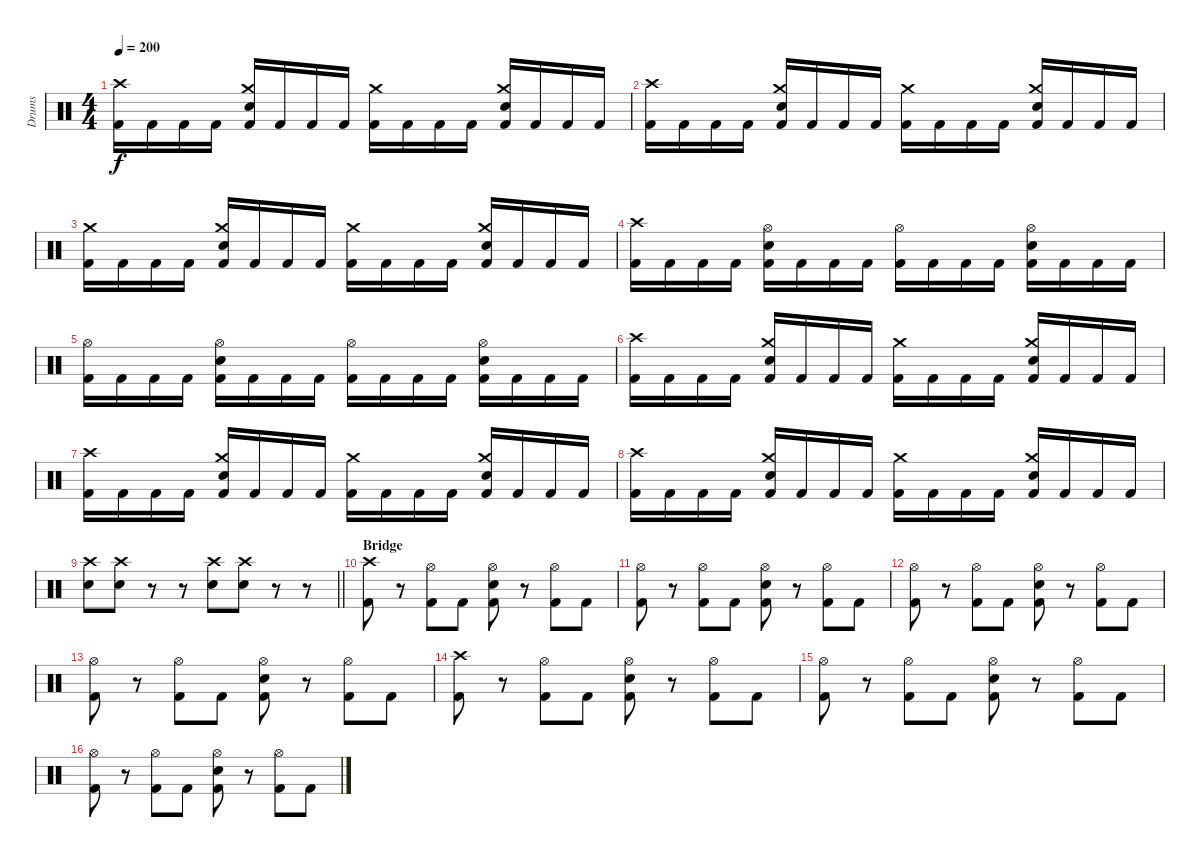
\track ("Drums" "Drums") {instrument percussion}
\staff {score}
\articulation defaults
\ts (4 4)
\tempo 200
\clef neutral
\ks c
("Crash high (hit)" "Kick (hit) 2").16{dy f} "Kick (hit) 2".16 "Kick (hit) 2".16 "Kick (hit) 2".16 ("Crash medium (hit)" "Electric Snare (hit)" "Kick (hit) 2").16 "Kick (hit) 2".16 "Kick (hit) 2".16 "Kick (hit) 2".16 ("Crash medium (hit)" "Kick (hit) 2").16 "Kick (hit) 2".16 "Kick (hit) 2".16 "Kick (hit) 2".16 ("Crash medium (hit)" "Electric Snare (hit)" "Kick (hit) 2").16 "Kick (hit) 2".16 "Kick (hit) 2".16 "Kick (hit) 2".16 |
("Crash high (hit)" "Kick (hit) 2").16 "Kick (hit) 2".16 "Kick (hit) 2".16 "Kick (hit) 2".16 ("Crash medium (hit)" "Electric Snare (hit)" "Kick (hit) 2").16 "Kick (hit) 2".16 "Kick (hit) 2".16 "Kick (hit) 2".16 ("Crash medium (hit)" "Kick (hit) 2").16 "Kick (hit) 2".16 "Kick (hit) 2".16 "Kick (hit) 2".16 ("Crash medium (hit)" "Electric Snare (hit)" "Kick (hit) 2").16 "Kick (hit) 2".16 "Kick (hit) 2".16 "Kick (hit) 2".16 |
("Crash medium (hit)" "Kick (hit) 2").16 "Kick (hit) 2".16 "Kick (hit) 2".16 "Kick (hit) 2".16 ("Crash medium (hit)" "Electric Snare (hit)" "Kick (hit) 2").16 "Kick (hit) 2".16 "Kick (hit) 2".16 "Kick (hit) 2".16 ("Crash medium (hit)" "Kick (hit) 2").16 "Kick (hit) 2".16 "Kick (hit) 2".16 "Kick (hit) 2".16 ("Crash medium (hit)" "Electric Snare (hit)" "Kick (hit) 2").16 "Kick (hit) 2".16 "Kick (hit) 2".16 "Kick (hit) 2".16 |
("Crash high (hit)" "Kick (hit) 2").16 "Kick (hit) 2".16 "Kick (hit) 2".16 "Kick (hit) 2".16 ("Hi-Hat (open)" "Electric Snare (hit)" "Kick (hit) 2").16 "Kick (hit) 2".16 "Kick (hit) 2".16 "Kick (hit) 2".16 ("Hi-Hat (open)" "Kick (hit) 2").16 "Kick (hit) 2".16 "Kick (hit) 2".16 "Kick (hit) 2".16 ("Hi-Hat (open)" "Electric Snare (hit)" "Kick (hit) 2").16 "Kick (hit) 2".16 "Kick (hit) 2".16 "Kick (hit) 2".16 |
("Hi-Hat (open)" "Kick (hit) 2").16 "Kick (hit) 2".16 "Kick (hit) 2".16 "Kick (hit) 2".16 ("Hi-Hat (open)" "Electric Snare (hit)" "Kick (hit) 2").16 "Kick (hit) 2".16 "Kick (hit) 2".16 "Kick (hit) 2".16 ("Hi-Hat (open)" "Kick (hit) 2").16 "Kick (hit) 2".16 "Kick (hit) 2".16 "Kick (hit) 2".16 ("Hi-Hat (open)" "Electric Snare (hit)" "Kick (hit) 2").16 "Kick (hit) 2".16 "Kick (hit) 2".16 "Kick (hit) 2".16 |
("Crash high (hit)" "Kick (hit) 2").16 "Kick (hit) 2".16 "Kick (hit) 2".16 "Kick (hit) 2".16 ("Crash medium (hit)" "Electric Snare (hit)" "Kick (hit) 2").16 "Kick (hit) 2".16 "Kick (hit) 2".16 "Kick (hit) 2".16 ("Crash medium (hit)" "Kick (hit) 2").16 "Kick (hit) 2".16 "Kick (hit) 2".16 "Kick (hit) 2".16 ("Crash medium (hit)" "Electric Snare (hit)" "Kick (hit) 2").16 "Kick (hit) 2".16 "Kick (hit) 2".16 "Kick (hit) 2".16 |
("Crash high (hit)" "Kick (hit) 2").16 "Kick (hit) 2".16 "Kick (hit) 2".16 "Kick (hit) 2".16 ("Crash medium (hit)" "Electric Snare (hit)" "Kick (hit) 2").16 "Kick (hit) 2".16 "Kick (hit) 2".16 "Kick (hit) 2".16 ("Crash medium (hit)" "Kick (hit) 2").16 "Kick (hit) 2".16 "Kick (hit) 2".16 "Kick (hit) 2".16 ("Crash medium (hit)" "Electric Snare (hit)" "Kick (hit) 2").16 "Kick (hit) 2".16 "Kick (hit) 2".16 "Kick (hit) 2".16 |
("Crash high (hit)" "Kick (hit) 2").16 "Kick (hit) 2".16 "Kick (hit) 2".16 "Kick (hit) 2".16 ("Crash medium (hit)" "Electric Snare (hit)" "Kick (hit) 2").16 "Kick (hit) 2".16 "Kick (hit) 2".16 "Kick (hit) 2".16 ("Crash medium (hit)" "Kick (hit) 2").16 "Kick (hit) 2".16 "Kick (hit) 2".16 "Kick (hit) 2".16 ("Crash medium (hit)" "Electric Snare (hit)" "Kick (hit) 2").16 "Kick (hit) 2".16 "Kick (hit) 2".16 "Kick (hit) 2".16 |
\barLineRight lightlight
("Crash high (hit)" "Electric Snare (hit)").8 ("Crash high (hit)" "Electric Snare (hit)").8 r.8 r.8 ("Crash high (hit)" "Electric Snare (hit)").8 ("Crash high (hit)" "Electric Snare (hit)").8 r.8 r.8 |
\section ("" "Bridge ")
("Crash high (hit)" "Kick (hit) 2").8 r.8 ("Hi-Hat (open)" "Kick (hit) 2").8 "Kick (hit) 2".8 ("Hi-Hat (open)" "Electric Snare (hit)" "Kick (hit) 2").8 r.8 ("Hi-Hat (open)" "Kick (hit) 2").8 "Kick (hit) 2".8 |
("Hi-Hat (open)" "Kick (hit) 2").8 r.8 ("Hi-Hat (open)" "Kick (hit) 2").8 "Kick (hit) 2".8 ("Hi-Hat (open)" "Electric Snare (hit)" "Kick (hit) 2").8 r.8 ("Hi-Hat (open)" "Kick (hit) 2").8 "Kick (hit) 2".8 |
("Hi-Hat (open)" "Kick (hit) 2").8 r.8 ("Hi-Hat (open)" "Kick (hit) 2").8 "Kick (hit) 2".8 ("Hi-Hat (open)" "Electric Snare (hit)" "Kick (hit) 2").8 r.8 ("Hi-Hat (open)" "Kick (hit) 2").8 "Kick (hit) 2".8 |
("Hi-Hat (open)" "Kick (hit) 2").8 r.8 ("Hi-Hat (open)" "Kick (hit) 2").8 "Kick (hit) 2".8 ("Hi-Hat (open)" "Electric Snare (hit)" "Kick (hit) 2").8 r.8 ("Hi-Hat (open)" "Kick (hit) 2").8 "Kick (hit) 2".8 |
("Crash high (hit)" "Kick (hit) 2").8 r.8 ("Hi-Hat (open)" "Kick (hit) 2").8 "Kick (hit) 2".8 ("Hi-Hat (open)" "Electric Snare (hit)" "Kick (hit) 2").8 r.8 ("Hi-Hat (open)" "Kick (hit) 2").8 "Kick (hit) 2".8 |
("Hi-Hat (open)" "Kick (hit) 2").8 r.8 ("Hi-Hat (open)" "Kick (hit) 2").8 "Kick (hit) 2".8 ("Hi-Hat (open)" "Electric Snare (hit)" "Kick (hit) 2").8 r.8 ("Hi-Hat (open)" "Kick (hit) 2").8 "Kick (hit) 2".8 |
("Hi-Hat (open)" "Kick (hit) 2").8 r.8 ("Hi-Hat (open)" "Kick (hit) 2").8 "Kick (hit) 2".8 ("Hi-Hat (open)" "Electric Snare (hit)" "Kick (hit) 2").8 r.8 ("Hi-Hat (open)" "Kick (hit) 2").8 "Kick (hit) 2".8
